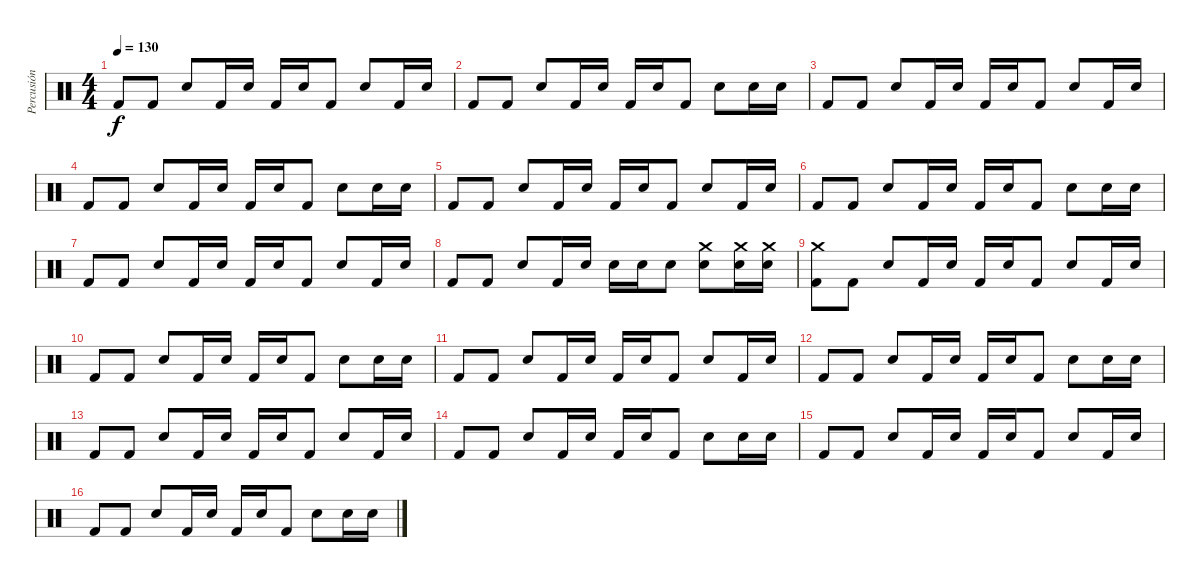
\track ("Percusión" "Percusión") {instrument percussion}
\staff {score}
\articulation defaults
\ts (4 4)
\tempo 130
\clef neutral
\ks c "Kick (hit) 2".8{dy f} "Kick (hit) 2".8 "Electric Snare (hit)".8 "Kick (hit) 2".16 "Electric Snare (hit)".16 "Kick (hit) 2".16 "Electric Snare (hit)".16 "Kick (hit) 2".8 "Electric Snare (hit)".8 "Kick (hit) 2".16 "Electric Snare (hit)".16
|
"Kick (hit) 2".8 "Kick (hit) 2".8 "Electric Snare (hit)".8 "Kick (hit) 2".16 "Electric Snare (hit)".16 "Kick (hit) 2".16 "Electric Snare (hit)".16 "Kick (hit) 2".8 "Electric Snare (hit)".8 "Electric Snare (hit)".16 "Electric Snare (hit)".16 |
"Kick (hit) 2".8 "Kick (hit) 2".8 "Electric Snare (hit)".8 "Kick (hit) 2".16 "Electric Snare (hit)".16 "Kick (hit) 2".16 "Electric Snare (hit)".16 "Kick (hit) 2".8 "Electric Snare (hit)".8 "Kick (hit) 2".16 "Electric Snare (hit)".16 |
"Kick (hit) 2".8 "Kick (hit) 2".8 "Electric Snare (hit)".8 "Kick (hit) 2".16 "Electric Snare (hit)".16 "Kick (hit) 2".16 "Electric Snare (hit)".16 "Kick (hit) 2".8 "Electric Snare (hit)".8 "Electric Snare (hit)".16 "Electric Snare (hit)".16 |
"Kick (hit) 2".8 "Kick (hit) 2".8 "Electric Snare (hit)".8 "Kick (hit) 2".16 "Electric Snare (hit)".16 "Kick (hit) 2".16 "Electric Snare (hit)".16 "Kick (hit) 2".8 "Electric Snare (hit)".8 "Kick (hit) 2".16 "Electric Snare (hit)".16 |
"Kick (hit) 2".8 "Kick (hit) 2".8 "Electric Snare (hit)".8 "Kick (hit) 2".16 "Electric Snare (hit)".16 "Kick (hit) 2".16 "Electric Snare (hit)".16 "Kick (hit) 2".8 "Electric Snare (hit)".8 "Electric Snare (hit)".16 "Electric Snare (hit)".16 |
"Kick (hit) 2".8 "Kick (hit) 2".8 "Electric Snare (hit)".8 "Kick (hit) 2".16 "Electric Snare (hit)".16 "Kick (hit) 2".16 "Electric Snare (hit)".16 "Kick (hit) 2".8 "Electric Snare (hit)".8 "Kick (hit) 2".16 "Electric Snare (hit)".16 |
"Kick (hit) 2".8 "Kick (hit) 2".8 "Electric Snare (hit)".8 "Kick (hit) 2".16 "Electric Snare (hit)".16 "Electric Snare (hit)".16 "Electric Snare (hit)".16 "Electric Snare (hit)".8 ("Electric Snare (hit)" "Crash medium (hit)").8 ("Electric Snare (hit)" "Crash medium (hit)").16 ("Electric Snare (hit)" "Crash medium (hit)").16 |
("Kick (hit) 2" "Crash medium (hit)").8 "Kick (hit) 2".8 "Electric Snare (hit)".8 "Kick (hit) 2".16 "Electric Snare (hit)".16 "Kick (hit) 2".16 "Electric Snare (hit)".16 "Kick (hit) 2".8 "Electric Snare (hit)".8 "Kick (hit) 2".16 "Electric Snare (hit)".16 |
"Kick (hit) 2".8 "Kick (hit) 2".8 "Electric Snare (hit)".8 "Kick (hit) 2".16 "Electric Snare (hit)".16 "Kick (hit) 2".16 "Electric Snare (hit)".16 "Kick (hit) 2".8 "Electric Snare (hit)".8 "Electric Snare (hit)".16 "Electric Snare (hit)".16 |
"Kick (hit) 2".8 "Kick (hit) 2".8 "Electric Snare (hit)".8 "Kick (hit) 2".16 "Electric Snare (hit)".16 "Kick (hit) 2".16 "Electric Snare (hit)".16 "Kick (hit) 2".8 "Electric Snare (hit)".8 "Kick (hit) 2".16 "Electric Snare (hit)".16 |
"Kick (hit) 2".8 "Kick (hit) 2".8 "Electric Snare (hit)".8 "Kick (hit) 2".16 "Electric Snare (hit)".16 "Kick (hit) 2".16 "Electric Snare (hit)".16 "Kick (hit) 2".8 "Electric Snare (hit)".8 "Electric Snare (hit)".16 "Electric Snare (hit)".16 |
"Kick (hit) 2".8 "Kick (hit) 2".8 "Electric Snare (hit)".8 "Kick (hit) 2".16 "Electric Snare (hit)".16 "Kick (hit) 2".16 "Electric Snare (hit)".16 "Kick (hit) 2".8 "Electric Snare (hit)".8 "Kick (hit) 2".16 "Electric Snare (hit)".16 |
"Kick (hit) 2".8 "Kick (hit) 2".8 "Electric Snare (hit)".8 "Kick (hit) 2".16 "Electric Snare (hit)".16 "Kick (hit) 2".16 "Electric Snare (hit)".16 "Kick (hit) 2".8 "Electric Snare (hit)".8 "Electric Snare (hit)".16 "Electric Snare (hit)".16 |
"Kick (hit) 2".8 "Kick (hit) 2".8 "Electric Snare (hit)".8 "Kick (hit) 2".16 "Electric Snare (hit)".16 "Kick (hit) 2".16 "Electric Snare (hit)".16 "Kick (hit) 2".8 "Electric Snare (hit)".8 "Kick (hit) 2".16 "Electric Snare (hit)".16 |
"Kick (hit) 2".8 "Kick (hit) 2".8 "Electric Snare (hit)".8 "Kick (hit) 2".16 "Electric Snare (hit)".16 "Kick (hit) 2".16 "Electric Snare (hit)".16 "Kick (hit) 2".8 "Electric Snare (hit)".8 "Electric Snare (hit)".16 "Electric Snare (hit)".16
